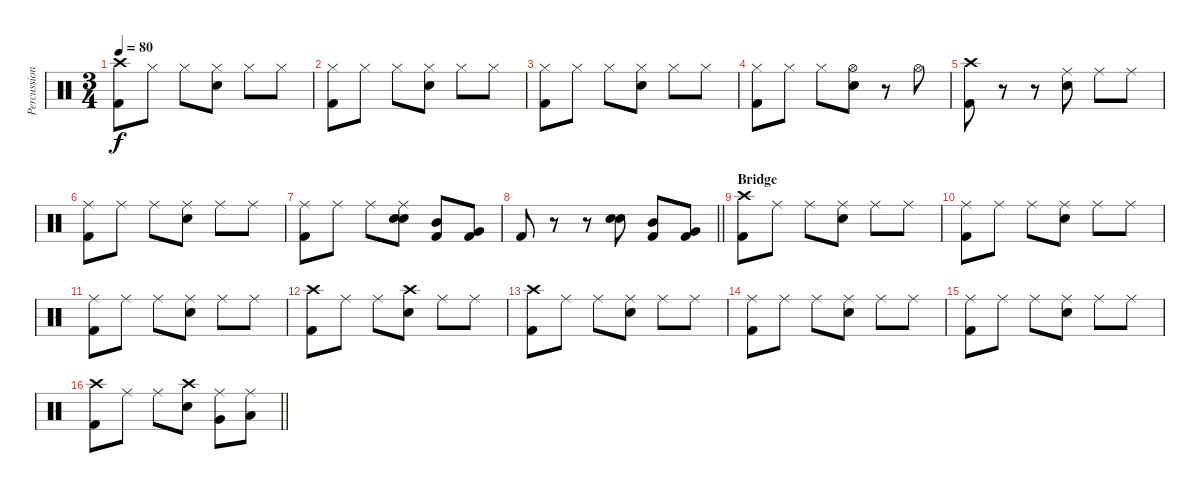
\track ("Percussion" "Percussion") {instrument percussion}
\staff {score}
\articulation defaults
\ts (3 4)
\tempo 80
\clef neutral
\ks c
("Crash high (hit)" "Kick (hit) 2").8{dy f} "Hi-Hat (closed)".8 "Hi-Hat (closed)".8 ("Hi-Hat (closed)" "Snare (hit) 2").8 "Hi-Hat (closed)".8 "Hi-Hat (closed)".8 |
("Hi-Hat (closed)" "Kick (hit) 2").8 "Hi-Hat (closed)".8 "Hi-Hat (closed)".8 ("Hi-Hat (closed)" "Snare (hit) 2").8 "Hi-Hat (closed)".8 "Hi-Hat (closed)".8 |
("Hi-Hat (closed)" "Kick (hit) 2").8 "Hi-Hat (closed)".8 "Hi-Hat (closed)".8 ("Hi-Hat (closed)" "Snare (hit) 2").8 "Hi-Hat (closed)".8 "Hi-Hat (closed)".8 |
("Hi-Hat (closed)" "Kick (hit) 2").8 "Hi-Hat (closed)".8 "Hi-Hat (closed)".8 ("Hi-Hat (open)" "Snare (hit) 2").8 r.8 "Hi-Hat (open)".8 |
("Crash high (hit)" "Kick (hit) 2").8 r.8 r.8 ("Ride (middle)" "Snare (hit) 2").8 "Ride (middle)".8 "Ride (middle)".8 |
("Ride (middle)" "Kick (hit) 2").8 "Ride (middle)".8 "Ride (middle)".8 ("Ride (middle)" "Snare (hit) 2").8 "Ride (middle)".8 "Ride (middle)".8 |
("Ride (middle)" "Kick (hit) 2").8 "Ride (middle)".8 "Ride (middle)".8 ("Ride (middle)" "Snare (hit) 2" "Snare (hit) 2").8 ("Mid Tom (hit)" "Kick (hit) 2").8 ("Very Low Tom (hit)" "Kick (hit) 2").8 |
\barLineRight lightlight "Kick (hit) 2".8
r.8 r.8 ("Snare (hit) 2" "Snare (hit) 2").8 ("Mid Tom (hit)" "Kick (hit) 2").8 ("Very Low Tom (hit)" "Kick (hit) 2").8 |
\section ("" "Bridge")
("Crash high (hit)" "Kick (hit) 2").8 "Ride (middle)".8 "Ride (middle)".8 ("Ride (middle)" "Snare (hit) 2").8 "Ride (middle)".8 "Ride (middle)".8 |
("Ride (middle)" "Kick (hit) 2").8 "Ride (middle)".8 "Ride (middle)".8 ("Ride (middle)" "Snare (hit) 2").8 "Ride (middle)".8 "Ride (middle)".8 |
("Ride (middle)" "Kick (hit) 2").8 "Ride (middle)".8 "Ride (middle)".8 ("Ride (middle)" "Snare (hit) 2").8 "Ride (middle)".8 "Ride (middle)".8 |
("Crash high (hit)" "Kick (hit) 2").8 "Ride (middle)".8 "Ride (middle)".8 ("Crash high (hit)" "Snare (hit) 2").8 "Ride (middle)".8 "Ride (middle)".8 |
("Crash high (hit)" "Kick (hit) 2").8 "Ride (middle)".8 "Ride (middle)".8 ("Ride (middle)" "Snare (hit) 2").8 "Ride (middle)".8 "Ride (middle)".8 |
("Ride (middle)" "Kick (hit) 2").8 "Ride (middle)".8 "Ride (middle)".8 ("Ride (middle)" "Snare (hit) 2").8 "Ride (middle)".8 "Ride (middle)".8 |
("Ride (middle)" "Kick (hit) 2").8 "Ride (middle)".8 "Ride (middle)".8 ("Ride (middle)" "Snare (hit) 2").8 "Ride (middle)".8 "Ride (middle)".8 |
\barLineRight lightlight
("Crash high (hit)" "Kick (hit) 2").8 "Ride (middle)".8 "Ride (middle)".8 ("Crash high (hit)" "Snare (hit) 2").8 ("Ride (middle)" "Very Low Tom (hit)").8 ("Ride (middle)" "Low Floor Tom (hit)").8
